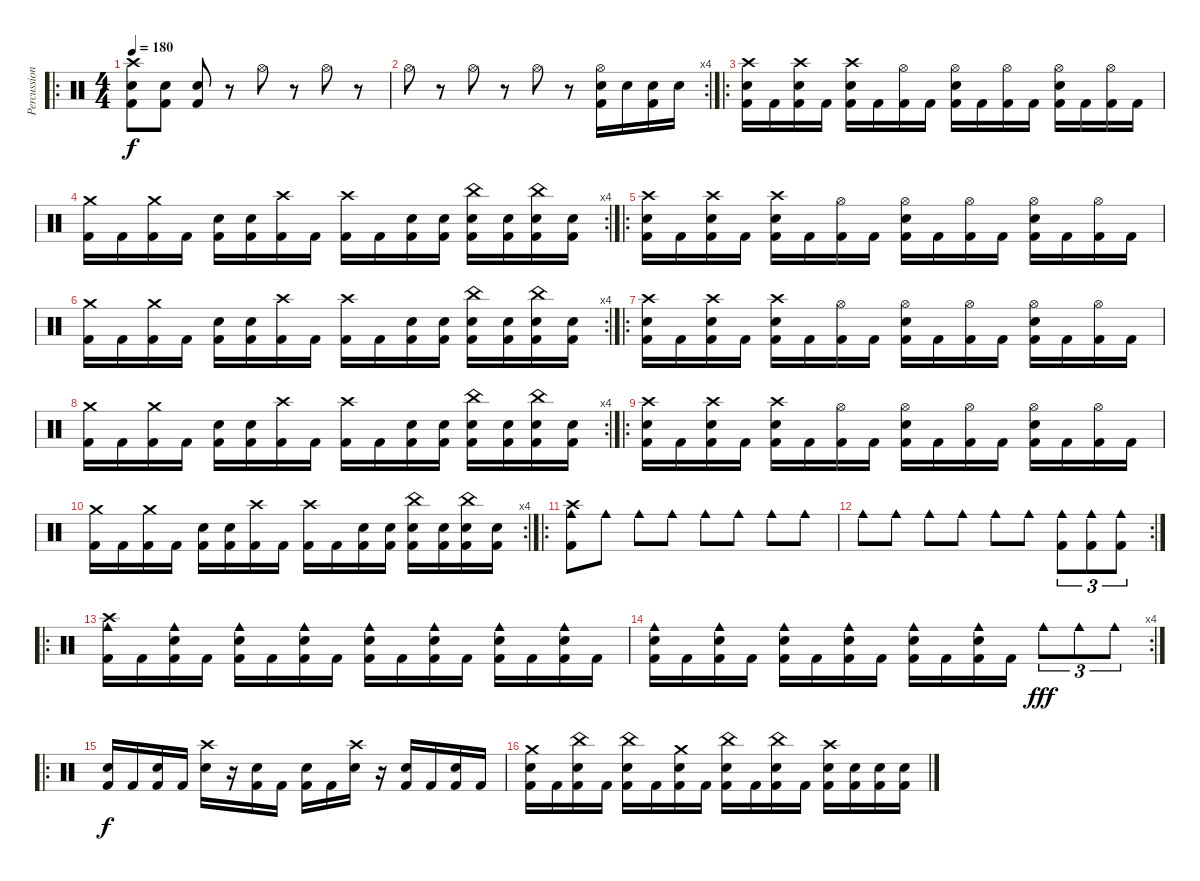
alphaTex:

\track ("Percussion" "Percussion") {instrument percussion}
\staff {score}
\articulation defaults
\ro
\ts (4 4)
\tempo 180
\clef neutral
\ks c
("Crash high (hit)" "Electric Snare (hit)" "Kick (hit) 2").8{dy f} ("Electric Snare (hit)" "Kick (hit) 2").8 ("Electric Snare (hit)" "Kick (hit) 2").8 r.8 "Hi-Hat (open)".8 r.8 "Hi-Hat (open)".8 r.8 |
\rc 4 "Hi-Hat (open)".8
r.8 "Hi-Hat (open)".8 r.8 "Hi-Hat (open)".8 r.8 ("Hi-Hat (open)" "Electric Snare (hit)" "Kick (hit) 2").16 "Electric Snare (hit)".16 ("Electric Snare (hit)" "Kick (hit) 2").16 "Electric Snare (hit)".16 |
\ro
("Crash high (hit)" "Electric Snare (hit)" "Kick (hit) 2").16 "Kick (hit) 2".16 ("Crash high (hit)" "Electric Snare (hit)" "Kick (hit) 2").16 "Kick (hit) 2".16 ("Crash high (hit)" "Electric Snare (hit)" "Kick (hit) 2").16 "Kick (hit) 2".16 ("Hi-Hat (open)" "Kick (hit) 2").16 "Kick (hit) 2".16 ("Hi-Hat (open)" "Electric Snare (hit)" "Kick (hit) 2").16 "Kick (hit) 2".16 ("Hi-Hat (open)" "Kick (hit) 2").16 "Kick (hit) 2".16 ("Hi-Hat (open)" "Electric Snare (hit)" "Kick (hit) 2").16 "Kick (hit) 2".16 ("Hi-Hat (open)" "Kick (hit) 2").16 "Kick (hit) 2".16 |
\rc 4
("Crash medium (hit)" "Kick (hit) 2").16 "Kick (hit) 2".16 ("Crash medium (hit)" "Kick (hit) 2").16 "Kick (hit) 2".16 ("Electric Snare (hit)" "Kick (hit) 2").16 ("Electric Snare (hit)" "Kick (hit) 2").16 ("Crash high (hit)" "Kick (hit) 2").16 "Kick (hit) 2".16 ("Crash high (hit)" "Kick (hit) 2").16 "Kick (hit) 2".16 ("Electric Snare (hit)" "Kick (hit) 2").16 ("Electric Snare (hit)" "Kick (hit) 2").16 ("China (hit)" "Electric Snare (hit)" "Kick (hit) 2").16 ("Electric Snare (hit)" "Kick (hit) 2").16 ("China (hit)" "Electric Snare (hit)" "Kick (hit) 2").16 ("Electric Snare (hit)" "Kick (hit) 2").16 |
\ro
("Crash high (hit)" "Electric Snare (hit)" "Kick (hit) 2").16 "Kick (hit) 2".16 ("Crash high (hit)" "Electric Snare (hit)" "Kick (hit) 2").16 "Kick (hit) 2".16 ("Crash high (hit)" "Electric Snare (hit)" "Kick (hit) 2").16 "Kick (hit) 2".16 ("Hi-Hat (open)" "Kick (hit) 2").16 "Kick (hit) 2".16 ("Hi-Hat (open)" "Electric Snare (hit)" "Kick (hit) 2").16 "Kick (hit) 2".16 ("Hi-Hat (open)" "Kick (hit) 2").16 "Kick (hit) 2".16 ("Hi-Hat (open)" "Electric Snare (hit)" "Kick (hit) 2").16 "Kick (hit) 2".16 ("Hi-Hat (open)" "Kick (hit) 2").16 "Kick (hit) 2".16 |
\rc 4
("Crash medium (hit)" "Kick (hit) 2").16 "Kick (hit) 2".16 ("Crash medium (hit)" "Kick (hit) 2").16 "Kick (hit) 2".16 ("Electric Snare (hit)" "Kick (hit) 2").16 ("Electric Snare (hit)" "Kick (hit) 2").16 ("Crash high (hit)" "Kick (hit) 2").16 "Kick (hit) 2".16 ("Crash high (hit)" "Kick (hit) 2").16 "Kick (hit) 2".16 ("Electric Snare (hit)" "Kick (hit) 2").16 ("Electric Snare (hit)" "Kick (hit) 2").16 ("China (hit)" "Electric Snare (hit)" "Kick (hit) 2").16 ("Electric Snare (hit)" "Kick (hit) 2").16 ("China (hit)" "Electric Snare (hit)" "Kick (hit) 2").16 ("Electric Snare (hit)" "Kick (hit) 2").16 |
\ro
("Crash high (hit)" "Electric Snare (hit)" "Kick (hit) 2").16 "Kick (hit) 2".16 ("Crash high (hit)" "Electric Snare (hit)" "Kick (hit) 2").16 "Kick (hit) 2".16 ("Crash high (hit)" "Electric Snare (hit)" "Kick (hit) 2").16 "Kick (hit) 2".16 ("Hi-Hat (open)" "Kick (hit) 2").16 "Kick (hit) 2".16 ("Hi-Hat (open)" "Electric Snare (hit)" "Kick (hit) 2").16 "Kick (hit) 2".16 ("Hi-Hat (open)" "Kick (hit) 2").16 "Kick (hit) 2".16 ("Hi-Hat (open)" "Electric Snare (hit)" "Kick (hit) 2").16 "Kick (hit) 2".16 ("Hi-Hat (open)" "Kick (hit) 2").16 "Kick (hit) 2".16 |
\rc 4
("Crash medium (hit)" "Kick (hit) 2").16 "Kick (hit) 2".16 ("Crash medium (hit)" "Kick (hit) 2").16 "Kick (hit) 2".16 ("Electric Snare (hit)" "Kick (hit) 2").16 ("Electric Snare (hit)" "Kick (hit) 2").16 ("Crash high (hit)" "Kick (hit) 2").16 "Kick (hit) 2".16 ("Crash high (hit)" "Kick (hit) 2").16 "Kick (hit) 2".16 ("Electric Snare (hit)" "Kick (hit) 2").16 ("Electric Snare (hit)" "Kick (hit) 2").16 ("China (hit)" "Electric Snare (hit)" "Kick (hit) 2").16 ("Electric Snare (hit)" "Kick (hit) 2").16 ("China (hit)" "Electric Snare (hit)" "Kick (hit) 2").16 ("Electric Snare (hit)" "Kick (hit) 2").16 |
\ro
("Crash high (hit)" "Electric Snare (hit)" "Kick (hit) 2").16 "Kick (hit) 2".16 ("Crash high (hit)" "Electric Snare (hit)" "Kick (hit) 2").16 "Kick (hit) 2".16 ("Crash high (hit)" "Electric Snare (hit)" "Kick (hit) 2").16 "Kick (hit) 2".16 ("Hi-Hat (open)" "Kick (hit) 2").16 "Kick (hit) 2".16 ("Hi-Hat (open)" "Electric Snare (hit)" "Kick (hit) 2").16 "Kick (hit) 2".16 ("Hi-Hat (open)" "Kick (hit) 2").16 "Kick (hit) 2".16 ("Hi-Hat (open)" "Electric Snare (hit)" "Kick (hit) 2").16 "Kick (hit) 2".16 ("Hi-Hat (open)" "Kick (hit) 2").16 "Kick (hit) 2".16 |
\rc 4
("Crash medium (hit)" "Kick (hit) 2").16 "Kick (hit) 2".16 ("Crash medium (hit)" "Kick (hit) 2").16 "Kick (hit) 2".16 ("Electric Snare (hit)" "Kick (hit) 2").16 ("Electric Snare (hit)" "Kick (hit) 2").16 ("Crash high (hit)" "Kick (hit) 2").16 "Kick (hit) 2".16 ("Crash high (hit)" "Kick (hit) 2").16 "Kick (hit) 2".16 ("Electric Snare (hit)" "Kick (hit) 2").16 ("Electric Snare (hit)" "Kick (hit) 2").16 ("China (hit)" "Electric Snare (hit)" "Kick (hit) 2").16 ("Electric Snare (hit)" "Kick (hit) 2").16 ("China (hit)" "Electric Snare (hit)" "Kick (hit) 2").16 ("Electric Snare (hit)" "Kick (hit) 2").16 |
\ro
("Crash high (hit)" "Cowbell medium (hit)" "Kick (hit) 2").8 "Cowbell medium (hit)".8 "Cowbell medium (hit)".8 "Cowbell medium (hit)".8 "Cowbell medium (hit)".8 "Cowbell medium (hit)".8 "Cowbell medium (hit)".8 "Cowbell medium (hit)".8 |
\rc 2 "Cowbell medium (hit)".8 "Cowbell medium (hit)".8 "Cowbell medium (hit)".8 "Cowbell medium (hit)".8 "Cowbell medium (hit)".8 "Cowbell medium (hit)".8
("Cowbell medium (hit)" "Kick (hit) 2").8{tu (3 2)} ("Cowbell medium (hit)" "Kick (hit) 2").8{tu (3 2)} ("Cowbell medium (hit)" "Kick (hit) 2").8{tu (3 2)} |
\ro
("Crash high (hit)" "Cowbell medium (hit)" "Kick (hit) 2").16 "Kick (hit) 2".16 ("Cowbell medium (hit)" "Electric Snare (hit)" "Kick (hit) 2").16 "Kick (hit) 2".16 ("Cowbell medium (hit)" "Electric Snare (hit)" "Kick (hit) 2").16 "Kick (hit) 2".16 ("Cowbell medium (hit)" "Electric Snare (hit)" "Kick (hit) 2").16 "Kick (hit) 2".16 ("Cowbell medium (hit)" "Electric Snare (hit)" "Kick (hit) 2").16 "Kick (hit) 2".16 ("Cowbell medium (hit)" "Electric Snare (hit)" "Kick (hit) 2").16 "Kick (hit) 2".16 ("Cowbell medium (hit)" "Electric Snare (hit)" "Kick (hit) 2").16 "Kick (hit) 2".16 ("Cowbell medium (hit)" "Electric Snare (hit)" "Kick (hit) 2").16 "Kick (hit) 2".16 |
\rc 4
("Cowbell medium (hit)" "Electric Snare (hit)" "Kick (hit) 2").16 "Kick (hit) 2".16 ("Cowbell medium (hit)" "Electric Snare (hit)" "Kick (hit) 2").16 "Kick (hit) 2".16 ("Cowbell medium (hit)" "Electric Snare (hit)" "Kick (hit) 2").16 "Kick (hit) 2".16 ("Cowbell medium (hit)" "Electric Snare (hit)" "Kick (hit) 2").16 "Kick (hit) 2".16 ("Cowbell medium (hit)" "Electric Snare (hit)" "Kick (hit) 2").16 "Kick (hit) 2".16 ("Cowbell medium (hit)" "Electric Snare (hit)" "Kick (hit) 2").16 "Kick (hit) 2".16 "Cowbell medium (hit)".8{tu (3 2) dy fff} "Cowbell medium (hit)".8{tu (3 2)} "Cowbell medium (hit)".8{tu (3 2)} |
\ro
("Electric Snare (hit)" "Kick (hit) 2").16{dy f} "Kick (hit) 2".16 ("Electric Snare (hit)" "Kick (hit) 2").16 "Kick (hit) 2".16 ("Crash high (hit)" "Electric Snare (hit)").16 r.16 ("Electric Snare (hit)" "Kick (hit) 2").16 "Kick (hit) 2".16 ("Electric Snare (hit)" "Kick (hit) 2").16 "Kick (hit) 2".16 ("Crash high (hit)" "Electric Snare (hit)").16 r.16 ("Electric Snare (hit)" "Kick (hit) 2").16 "Kick (hit) 2".16 ("Electric Snare (hit)" "Kick (hit) 2").16 "Kick (hit) 2".16 |
("Crash medium (hit)" "Electric Snare (hit)" "Kick (hit) 2").16 "Kick (hit) 2".16 ("China (hit)" "Electric Snare (hit)" "Kick (hit) 2").16 "Kick (hit) 2".16 ("China (hit)" "Electric Snare (hit)" "Kick (hit) 2").16 "Kick (hit) 2".16 ("Crash medium (hit)" "Electric Snare (hit)" "Kick (hit) 2").16 "Kick (hit) 2".16 ("China (hit)" "Electric Snare (hit)" "Kick (hit) 2").16 "Kick (hit) 2".16 ("China (hit)" "Electric Snare (hit)" "Kick (hit) 2").16 "Kick (hit) 2".16 ("Crash high (hit)" "Electric Snare (hit)" "Kick (hit) 2").16 ("Electric Snare (hit)" "Kick (hit) 2").16 ("Electric Snare (hit)" "Kick (hit) 2").16 ("Electric Snare (hit)" "Kick (hit) 2").16
